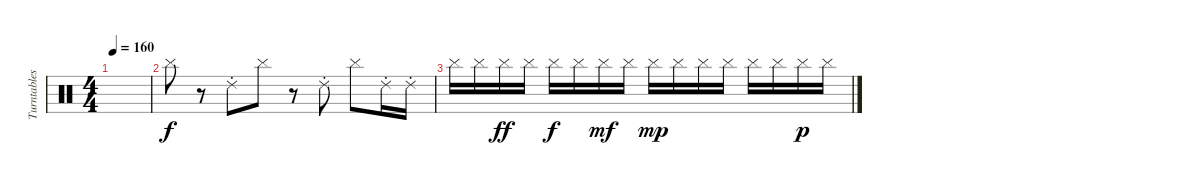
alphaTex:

\track ("Turntables" "Turntables") {instrument percussion}
\staff {score}
\articulation defaults
\ts (4 4)
\tempo 160
\clef neutral
\ks c
|
"Cymbal (hit)".8 r.8 "Ride (choke) 2".8 "Cymbal (hit)".8 r.8 "Ride (choke) 2".8 "Cymbal (hit)".8 "Ride (choke) 2".16 "Ride (choke) 2".16 |
"Cymbal (hit)".16 "Cymbal (hit)".16 "Cymbal (hit)".16{dy ff} "Cymbal (hit)".16 "Cymbal (hit)".16{dy f} "Cymbal (hit)".16 "Cymbal (hit)".16{dy mf} "Cymbal (hit)".16 "Cymbal (hit)".16{dy mp} "Cymbal (hit)".16 "Cymbal (hit)".16 "Cymbal (hit)".16 "Cymbal (hit)".16 "Cymbal (hit)".16 "Cymbal (hit)".16{dy p} "Cymbal (hit)".16
